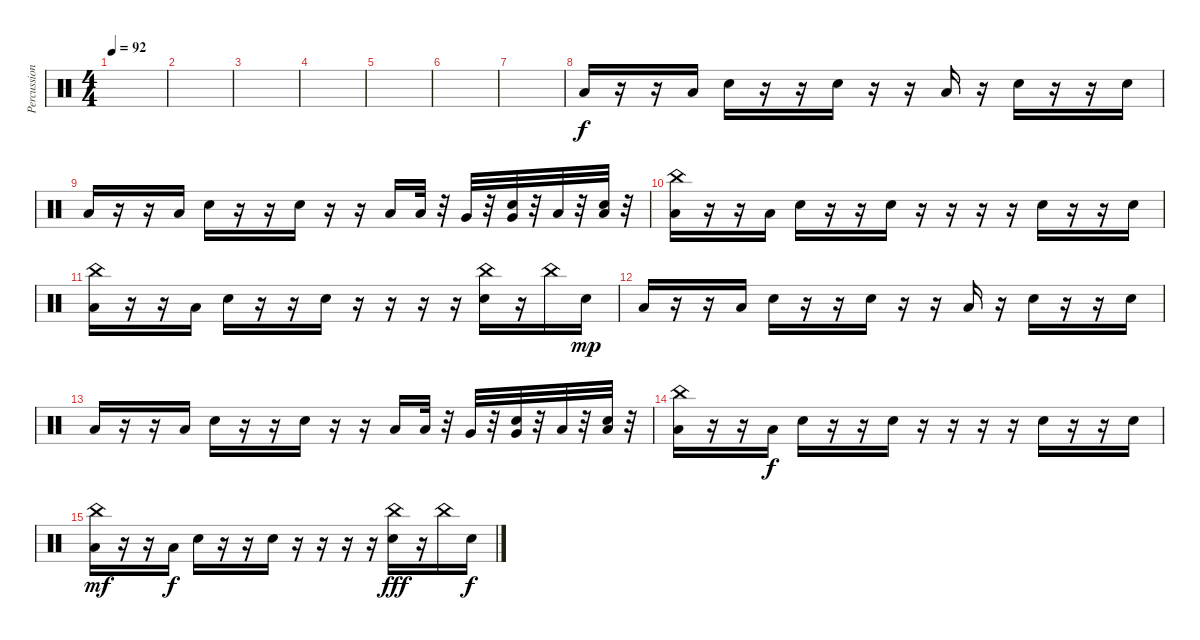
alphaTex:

\track ("Percussion" "Percussion") {instrument percussion}
\staff {score}
\articulation defaults
\ts (4 4)
\tempo 92
\clef neutral
\ks c
|
|
|
|
|
|
|
"Low Floor Tom (hit)".16 r.16 r.16 "Low Floor Tom (hit)".16 "Electric Snare (hit)".16 r.16 r.16 "Electric Snare (hit)".16 r.16 r.16 "Low Floor Tom (hit)".16 r.16 "Electric Snare (hit)".16 r.16 r.16 "Electric Snare (hit)".16 |
"Low Floor Tom (hit)".16 r.16 r.16 "Low Floor Tom (hit)".16 "Electric Snare (hit)".16 r.16 r.16 "Electric Snare (hit)".16 r.16 r.16 "Low Floor Tom (hit)".16 "Low Floor Tom (hit)".32 r.32 "Very Low Tom (hit)".32 r.32 ("Very Low Tom (hit)" "Electric Snare (hit)").32 r.32 "Low Tom (hit)".32 r.32 ("Low Tom (hit)" "Electric Snare (hit)").32 r.32 |
("Low Floor Tom (hit)" "China (hit)").16 r.16 r.16 "Low Floor Tom (hit)".16 "Electric Snare (hit)".16 r.16 r.16 "Electric Snare (hit)".16 r.16 r.16 r.16 r.16 "Electric Snare (hit)".16 r.16 r.16 "Electric Snare (hit)".16 |
("Low Floor Tom (hit)" "China (hit)").16 r.16 r.16 "Low Floor Tom (hit)".16 "Electric Snare (hit)".16 r.16 r.16 "Electric Snare (hit)".16 r.16 r.16 r.16 r.16 ("China (hit)" "Electric Snare (hit)").16 r.16 "China (hit)".16{dy f} "Electric Snare (hit)".16{dy mp} |
"Low Floor Tom (hit)".16 r.16 r.16 "Low Floor Tom (hit)".16 "Electric Snare (hit)".16 r.16 r.16 "Electric Snare (hit)".16 r.16 r.16 "Low Floor Tom (hit)".16 r.16 "Electric Snare (hit)".16 r.16 r.16 "Electric Snare (hit)".16 |
"Low Floor Tom (hit)".16 r.16 r.16 "Low Floor Tom (hit)".16 "Electric Snare (hit)".16 r.16 r.16 "Electric Snare (hit)".16 r.16 r.16 "Low Floor Tom (hit)".16 "Low Floor Tom (hit)".32 r.32 "Very Low Tom (hit)".32 r.32 ("Very Low Tom (hit)" "Electric Snare (hit)").32 r.32 "Low Tom (hit)".32 r.32 ("Low Tom (hit)" "Electric Snare (hit)").32 r.32 |
("Low Floor Tom (hit)" "China (hit)").16 r.16 r.16 "Low Floor Tom (hit)".16{dy f} "Electric Snare (hit)".16 r.16 r.16 "Electric Snare (hit)".16 r.16 r.16 r.16 r.16 "Electric Snare (hit)".16 r.16 r.16 "Electric Snare (hit)".16 |
("Low Floor Tom (hit)" "China (hit)").16{dy mf} r.16 r.16 "Low Floor Tom (hit)".16{dy f} "Electric Snare (hit)".16 r.16 r.16 "Electric Snare (hit)".16 r.16 r.16 r.16 r.16 ("China (hit)" "Electric Snare (hit)").16{dy fff} r.16 "China (hit)".16 "Electric Snare (hit)".16{dy f}
